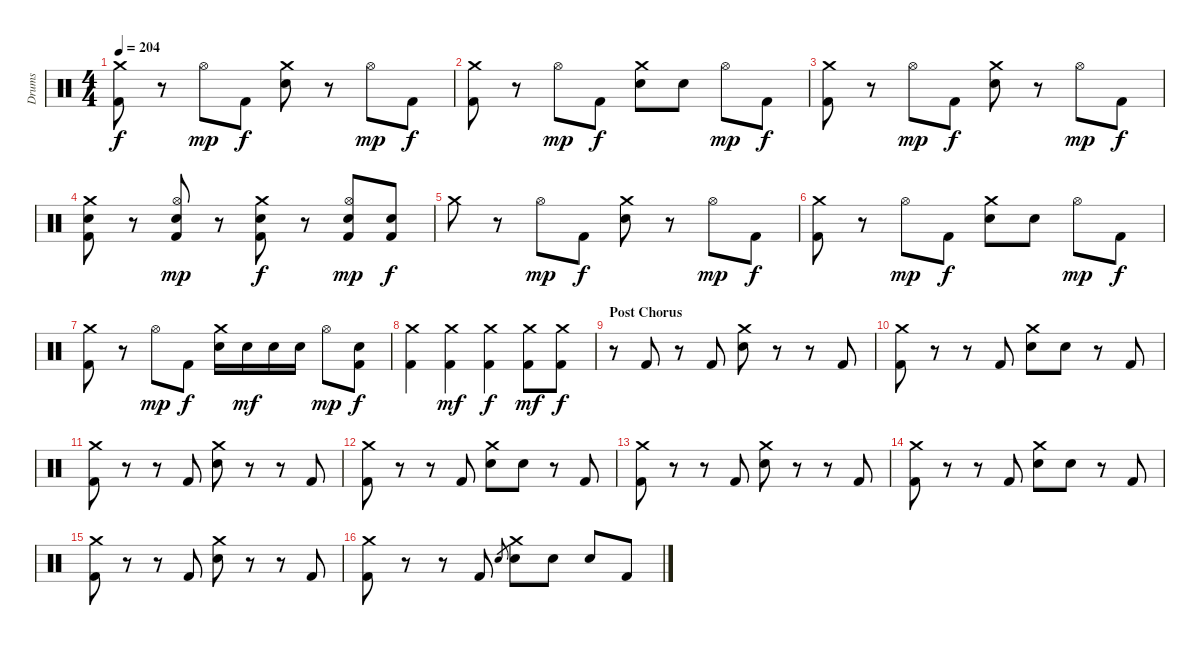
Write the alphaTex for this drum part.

\track ("Drums" "Drums") {instrument percussion}
\staff {score}
\articulation defaults
\ts (4 4)
\tempo 204
\clef neutral
\ks c
("Crash medium (hit)" "Kick (hit) 2").8{dy f} r.8 "Hi-Hat (open)".8{dy mp} "Kick (hit) 2".8{dy f} ("Crash medium (hit)" "Electric Snare (hit)").8 r.8 "Hi-Hat (open)".8{dy mp} "Kick (hit) 2".8{dy f} |
("Crash medium (hit)" "Kick (hit) 2").8 r.8 "Hi-Hat (open)".8{dy mp} "Kick (hit) 2".8{dy f} ("Crash medium (hit)" "Electric Snare (hit)").8 "Electric Snare (hit)".8 "Hi-Hat (open)".8{dy mp} "Kick (hit) 2".8{dy f} |
("Crash medium (hit)" "Kick (hit) 2").8 r.8 "Hi-Hat (open)".8{dy mp} "Kick (hit) 2".8{dy f} ("Crash medium (hit)" "Electric Snare (hit)").8 r.8 "Hi-Hat (open)".8{dy mp} "Kick (hit) 2".8{dy f} |
("Crash medium (hit)" "Electric Snare (hit)" "Kick (hit) 2").8 r.8 ("Hi-Hat (open)" "Electric Snare (hit)" "Kick (hit) 2").8{dy mp} r.8 ("Crash medium (hit)" "Electric Snare (hit)" "Kick (hit) 2").8{dy f} r.8 ("Hi-Hat (open)" "Electric Snare (hit)" "Kick (hit) 2").8{dy mp} ("Electric Snare (hit)" "Kick (hit) 2").8{dy f} |
"Crash medium (hit)".8 r.8 "Hi-Hat (open)".8{dy mp} "Kick (hit) 2".8{dy f} ("Crash medium (hit)" "Electric Snare (hit)").8 r.8 "Hi-Hat (open)".8{dy mp} "Kick (hit) 2".8{dy f} |
("Crash medium (hit)" "Kick (hit) 2").8 r.8 "Hi-Hat (open)".8{dy mp} "Kick (hit) 2".8{dy f} ("Crash medium (hit)" "Electric Snare (hit)").8 "Electric Snare (hit)".8 "Hi-Hat (open)".8{dy mp} "Kick (hit) 2".8{dy f} |
("Crash medium (hit)" "Kick (hit) 2").8 r.8 "Hi-Hat (open)".8{dy mp} "Kick (hit) 2".8{dy f} ("Crash medium (hit)" "Electric Snare (hit)").16 "Electric Snare (hit)".16{dy mf} "Electric Snare (hit)".16 "Electric Snare (hit)".16 "Hi-Hat (open)".8{dy mp} ("Electric Snare (hit)" "Kick (hit) 2").8{dy f} |
("Crash medium (hit)" "Kick (hit) 2").4 ("Crash medium (hit)" "Kick (hit) 2").4{dy mf} ("Crash medium (hit)" "Kick (hit) 2").4{dy f} ("Crash medium (hit)" "Kick (hit) 2").8{dy mf} ("Crash medium (hit)" "Kick (hit) 2").8{dy f} |
\section ("" "Post Chorus")
r.8 "Kick (hit) 2".8 r.8 "Kick (hit) 2".8 ("Crash medium (hit)" "Electric Snare (hit)").8 r.8 r.8 "Kick (hit) 2".8 |
("Crash medium (hit)" "Kick (hit) 2").8 r.8 r.8 "Kick (hit) 2".8 ("Crash medium (hit)" "Electric Snare (hit)").8 "Electric Snare (hit)".8 r.8 "Kick (hit) 2".8 |
("Crash medium (hit)" "Kick (hit) 2").8 r.8 r.8 "Kick (hit) 2".8 ("Crash medium (hit)" "Electric Snare (hit)").8 r.8 r.8 "Kick (hit) 2".8 |
("Crash medium (hit)" "Kick (hit) 2").8 r.8 r.8 "Kick (hit) 2".8 ("Crash medium (hit)" "Electric Snare (hit)").8 "Electric Snare (hit)".8 r.8 "Kick (hit) 2".8 |
("Crash medium (hit)" "Kick (hit) 2").8 r.8 r.8 "Kick (hit) 2".8 ("Crash medium (hit)" "Electric Snare (hit)").8 r.8 r.8 "Kick (hit) 2".8 |
("Crash medium (hit)" "Kick (hit) 2").8 r.8 r.8 "Kick (hit) 2".8 ("Crash medium (hit)" "Electric Snare (hit)").8 "Electric Snare (hit)".8 r.8 "Kick (hit) 2".8 |
("Crash medium (hit)" "Kick (hit) 2").8 r.8 r.8 "Kick (hit) 2".8 ("Crash medium (hit)" "Electric Snare (hit)").8 r.8 r.8 "Kick (hit) 2".8 |
("Crash medium (hit)" "Kick (hit) 2").8 r.8 r.8 "Kick (hit) 2".8 "Electric Snare (hit)".8{gr} ("Crash medium (hit)" "Electric Snare (hit)").8 "Electric Snare (hit)".8 "Electric Snare (hit)".8 "Kick (hit) 2".8
